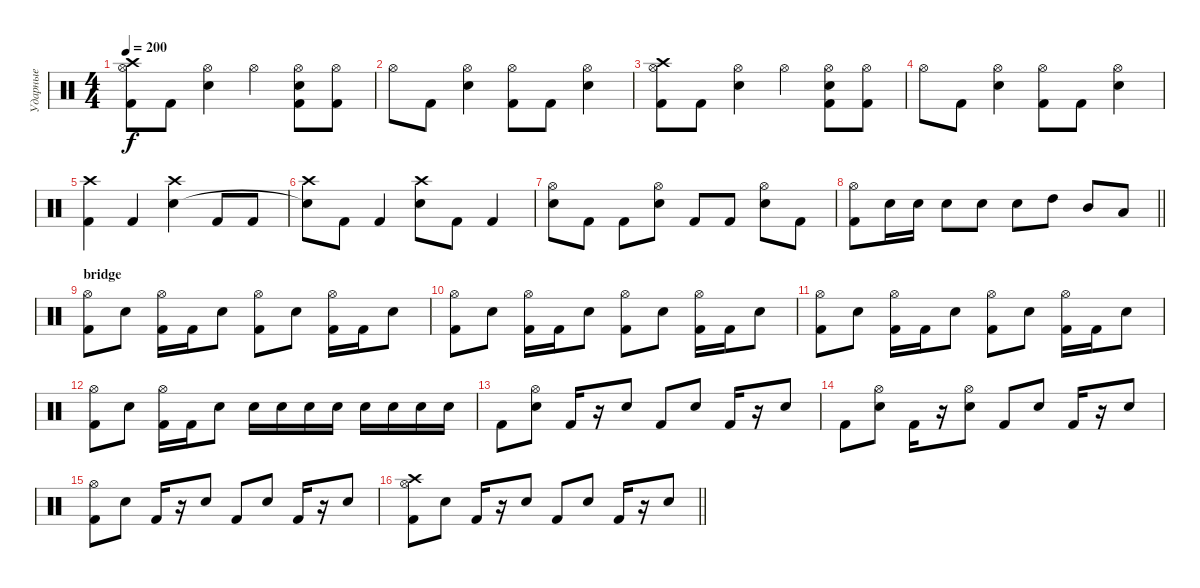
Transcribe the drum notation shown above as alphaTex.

\track ("Ударные" "Ударные") {instrument percussion}
\staff {score}
\articulation defaults
\ts (4 4)
\tempo 200
\clef neutral
\ks c
("Crash high (hit)" "Hi-Hat (open)" "Kick (hit) 2").8{dy f} "Kick (hit) 2".8 ("Hi-Hat (open)" "Electric Snare (hit)").4 "Hi-Hat (open)".4 ("Hi-Hat (open)" "Electric Snare (hit)" "Kick (hit) 2").8 ("Hi-Hat (open)" "Kick (hit) 2").8 |
"Hi-Hat (open)".8 "Kick (hit) 2".8 ("Hi-Hat (open)" "Electric Snare (hit)").4 ("Hi-Hat (open)" "Kick (hit) 2").8 "Kick (hit) 2".8 ("Hi-Hat (open)" "Electric Snare (hit)").4 |
("Hi-Hat (open)" "Crash high (hit)" "Kick (hit) 2").8 "Kick (hit) 2".8 ("Hi-Hat (open)" "Electric Snare (hit)").4 "Hi-Hat (open)".4 ("Hi-Hat (open)" "Electric Snare (hit)" "Kick (hit) 2").8 ("Hi-Hat (open)" "Kick (hit) 2").8 |
"Hi-Hat (open)".8 "Kick (hit) 2".8 ("Hi-Hat (open)" "Electric Snare (hit)").4 ("Hi-Hat (open)" "Kick (hit) 2").8 "Kick (hit) 2".8 ("Hi-Hat (open)" "Electric Snare (hit)").4 |
("Crash high (hit)" "Kick (hit) 2").4 "Kick (hit) 2".4 ("Crash high (hit)" "Electric Snare (hit)").4 "Kick (hit) 2".8 "Kick (hit) 2".8 |
("Crash high (hit)" "Snare (hit)"{t}).8 "Kick (hit) 2".8 "Kick (hit) 2".4 ("Crash high (hit)" "Electric Snare (hit)").8 "Kick (hit) 2".8 "Kick (hit) 2".4 |
("Hi-Hat (open)" "Electric Snare (hit)").8 "Kick (hit) 2".8 "Kick (hit) 2".8 ("Hi-Hat (open)" "Electric Snare (hit)").8 "Kick (hit) 2".8 "Kick (hit) 2".8 ("Hi-Hat (open)" "Electric Snare (hit)").8 "Kick (hit) 2".8 |
\barLineRight lightlight
("Hi-Hat (open)" "Kick (hit) 2").8 "Electric Snare (hit)".16 "Electric Snare (hit)".16 "Electric Snare (hit)".8 "Electric Snare (hit)".8 "Electric Snare (hit)".8 "High Tom (hit)".8 "Mid Tom (hit)".8 "Low Tom (hit)".8 |
\section ("" "bridge")
("Hi-Hat (open)" "Kick (hit) 2").8 "Electric Snare (hit)".8 ("Hi-Hat (open)" "Kick (hit) 2").16 "Kick (hit) 2".16 "Electric Snare (hit)".8 ("Hi-Hat (open)" "Kick (hit) 2").8 "Electric Snare (hit)".8 ("Hi-Hat (open)" "Kick (hit) 2").16 "Kick (hit) 2".16 "Electric Snare (hit)".8 |
("Hi-Hat (open)" "Kick (hit) 2").8 "Electric Snare (hit)".8 ("Hi-Hat (open)" "Kick (hit) 2").16 "Kick (hit) 2".16 "Electric Snare (hit)".8 ("Hi-Hat (open)" "Kick (hit) 2").8 "Electric Snare (hit)".8 ("Hi-Hat (open)" "Kick (hit) 2").16 "Kick (hit) 2".16 "Electric Snare (hit)".8 |
("Hi-Hat (open)" "Kick (hit) 2").8 "Electric Snare (hit)".8 ("Hi-Hat (open)" "Kick (hit) 2").16 "Kick (hit) 2".16 "Electric Snare (hit)".8 ("Hi-Hat (open)" "Kick (hit) 2").8 "Electric Snare (hit)".8 ("Hi-Hat (open)" "Kick (hit) 2").16 "Kick (hit) 2".16 "Electric Snare (hit)".8 |
("Hi-Hat (open)" "Kick (hit) 2").8 "Electric Snare (hit)".8 ("Hi-Hat (open)" "Kick (hit) 2").16 "Kick (hit) 2".16 "Electric Snare (hit)".8 "Electric Snare (hit)".16 "Electric Snare (hit)".16 "Electric Snare (hit)".16 "Electric Snare (hit)".16 "Electric Snare (hit)".16 "Electric Snare (hit)".16 "Electric Snare (hit)".16 "Electric Snare (hit)".16 |
"Kick (hit) 2".8 ("Hi-Hat (open)" "Electric Snare (hit)").8 "Kick (hit) 2".16 r.16 "Electric Snare (hit)".8 "Kick (hit) 2".8 "Electric Snare (hit)".8 "Kick (hit) 2".16 r.16 "Electric Snare (hit)".8 |
"Kick (hit) 2".8 ("Hi-Hat (open)" "Electric Snare (hit)").8 "Kick (hit) 2".16 r.16 ("Hi-Hat (open)" "Electric Snare (hit)").8 "Kick (hit) 2".8 "Electric Snare (hit)".8 "Kick (hit) 2".16 r.16 "Electric Snare (hit)".8 |
("Hi-Hat (open)" "Kick (hit) 2").8 "Electric Snare (hit)".8 "Kick (hit) 2".16 r.16 "Electric Snare (hit)".8 "Kick (hit) 2".8 "Electric Snare (hit)".8 "Kick (hit) 2".16 r.16 "Electric Snare (hit)".8 |
\barLineRight lightlight
("Hi-Hat (open)" "Crash high (hit)" "Kick (hit) 2").8 "Electric Snare (hit)".8 "Kick (hit) 2".16 r.16 "Electric Snare (hit)".8 "Kick (hit) 2".8 "Electric Snare (hit)".8 "Kick (hit) 2".16 r.16 "Electric Snare (hit)".8
